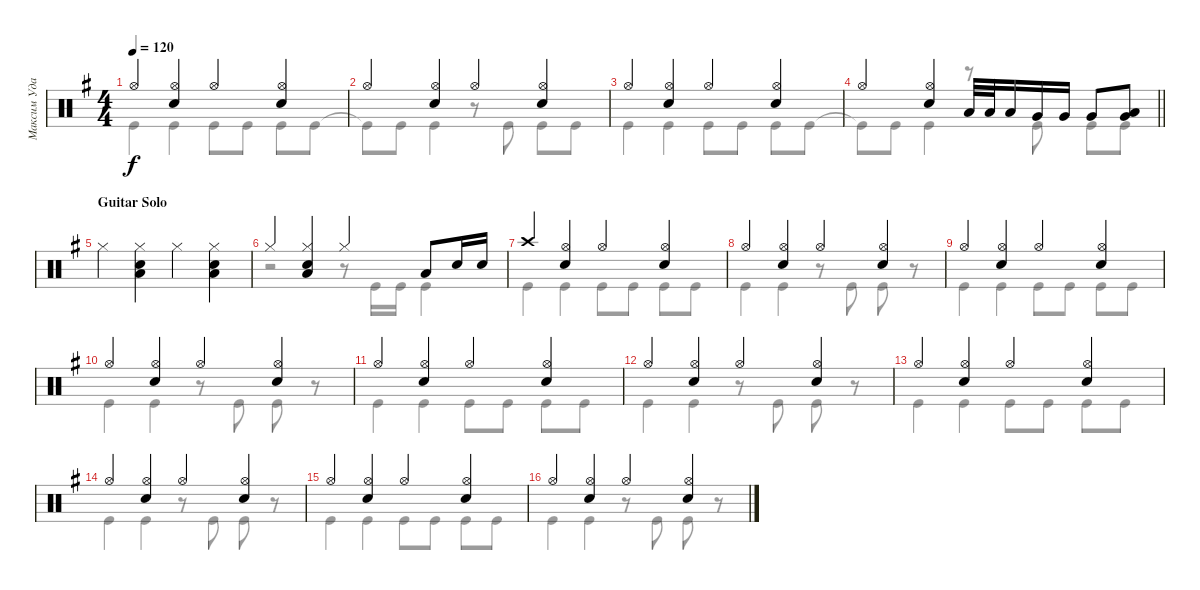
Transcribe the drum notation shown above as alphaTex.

\track ("Максим Удалов" "Максим Уда") {instrument percussion}
\staff {score}
\articulation defaults
\voice
\ts (4 4)
\tempo 120
\clef neutral
\ks g "Hi-Hat (open)".4{dy f}
("Snare (hit) 2" "Hi-Hat (open)").4 "Hi-Hat (open)".4 ("Snare (hit) 2" "Hi-Hat (open)").4 |
"Hi-Hat (open)".4 ("Hi-Hat (open)" "Snare (hit) 2").4 "Hi-Hat (open)".4 ("Hi-Hat (open)" "Snare (hit) 2").4 |
"Hi-Hat (open)".4 ("Snare (hit) 2" "Hi-Hat (open)").4 "Hi-Hat (open)".4 ("Snare (hit) 2" "Hi-Hat (open)").4 |
\barLineRight lightlight "Hi-Hat (open)".4
("Hi-Hat (open)" "Snare (hit) 2").4 "Low Tom (hit)".32 "Low Tom (hit)".32 "Low Tom (hit)".16 "Very Low Tom (hit)".16 "Very Low Tom (hit)".16 "Very Low Tom (hit)".8 ("Very Low Tom (hit)" "Low Tom (hit)").8 |
\section ("" "Guitar Solo")
"Hi-Hat (closed)".4 ("Hi-Hat (closed)" "Snare (hit) 2" "Low Tom (hit)").4 "Hi-Hat (closed)".4 ("Hi-Hat (closed)" "Snare (hit) 2" "Low Tom (hit)").4 |
"Hi-Hat (closed)".4 ("Hi-Hat (closed)" "Snare (hit) 2" "Low Tom (hit)").4 "Hi-Hat (closed)".4 "Low Tom (hit)".8 "Snare (hit) 2".16 "Snare (hit) 2".16 |
"Crash high (hit)".4 ("Hi-Hat (open)" "Snare (hit) 2").4 "Hi-Hat (open)".4 ("Hi-Hat (open)" "Snare (hit) 2").4 |
"Hi-Hat (open)".4 ("Hi-Hat (open)" "Snare (hit) 2").4 "Hi-Hat (open)".4 ("Hi-Hat (open)" "Snare (hit) 2").4 |
"Hi-Hat (open)".4 ("Hi-Hat (open)" "Snare (hit) 2").4 "Hi-Hat (open)".4 ("Hi-Hat (open)" "Snare (hit) 2").4 |
"Hi-Hat (open)".4 ("Hi-Hat (open)" "Snare (hit) 2").4 "Hi-Hat (open)".4 ("Hi-Hat (open)" "Snare (hit) 2").4 |
"Hi-Hat (open)".4 ("Hi-Hat (open)" "Snare (hit) 2").4 "Hi-Hat (open)".4 ("Hi-Hat (open)" "Snare (hit) 2").4 |
"Hi-Hat (open)".4 ("Hi-Hat (open)" "Snare (hit) 2").4 "Hi-Hat (open)".4 ("Hi-Hat (open)" "Snare (hit) 2").4 |
"Hi-Hat (open)".4 ("Hi-Hat (open)" "Snare (hit) 2").4 "Hi-Hat (open)".4 ("Hi-Hat (open)" "Snare (hit) 2").4 |
"Hi-Hat (open)".4 ("Hi-Hat (open)" "Snare (hit) 2").4 "Hi-Hat (open)".4 ("Hi-Hat (open)" "Snare (hit) 2").4 |
"Hi-Hat (open)".4 ("Hi-Hat (open)" "Snare (hit) 2").4 "Hi-Hat (open)".4 ("Hi-Hat (open)" "Snare (hit) 2").4 |
"Hi-Hat (open)".4 ("Hi-Hat (open)" "Snare (hit) 2").4 "Hi-Hat (open)".4 ("Hi-Hat (open)" "Snare (hit) 2").4
\voice
\clef neutral
\ottava regular
\simile none
\ks g "Kick (hit)".4{dy f} "Kick (hit)".4 "Kick (hit)".8 "Kick (hit)".8 "Kick (hit)".8 "Kick (hit)".8
|
"Kick (hit)"{t}.8 "Kick (hit)".8 "Kick (hit)".4 r.8 "Kick (hit)".8 "Kick (hit)".8 "Kick (hit)".8 |
"Kick (hit)".4 "Kick (hit)".4 "Kick (hit)".8 "Kick (hit)".8 "Kick (hit)".8 "Kick (hit)".8 |
\barLineRight lightlight "Kick (hit)"{t}.8 "Kick (hit)".8 "Kick (hit)".4
r.8 "Kick (hit)".8 "Kick (hit)".8 "Kick (hit)".8 |
|
r.2 r.8 "Kick (hit)".16 "Kick (hit)".16 "Kick (hit)".4 |
"Kick (hit)".4 "Kick (hit)".4 "Kick (hit)".8 "Kick (hit)".8 "Kick (hit)".8 "Kick (hit)".8 |
"Kick (hit)".4 "Kick (hit)".4 r.8 "Kick (hit)".8 "Kick (hit)".8 r.8 |
"Kick (hit)".4 "Kick (hit)".4 "Kick (hit)".8 "Kick (hit)".8 "Kick (hit)".8 "Kick (hit)".8 |
"Kick (hit)".4 "Kick (hit)".4 r.8 "Kick (hit)".8 "Kick (hit)".8 r.8 |
"Kick (hit)".4 "Kick (hit)".4 "Kick (hit)".8 "Kick (hit)".8 "Kick (hit)".8 "Kick (hit)".8 |
"Kick (hit)".4 "Kick (hit)".4 r.8 "Kick (hit)".8 "Kick (hit)".8 r.8 |
"Kick (hit)".4 "Kick (hit)".4 "Kick (hit)".8 "Kick (hit)".8 "Kick (hit)".8 "Kick (hit)".8 |
"Kick (hit)".4 "Kick (hit)".4 r.8 "Kick (hit)".8 "Kick (hit)".8 r.8 |
"Kick (hit)".4 "Kick (hit)".4 "Kick (hit)".8 "Kick (hit)".8 "Kick (hit)".8 "Kick (hit)".8 |
"Kick (hit)".4 "Kick (hit)".4 r.8 "Kick (hit)".8 "Kick (hit)".8 r.8
